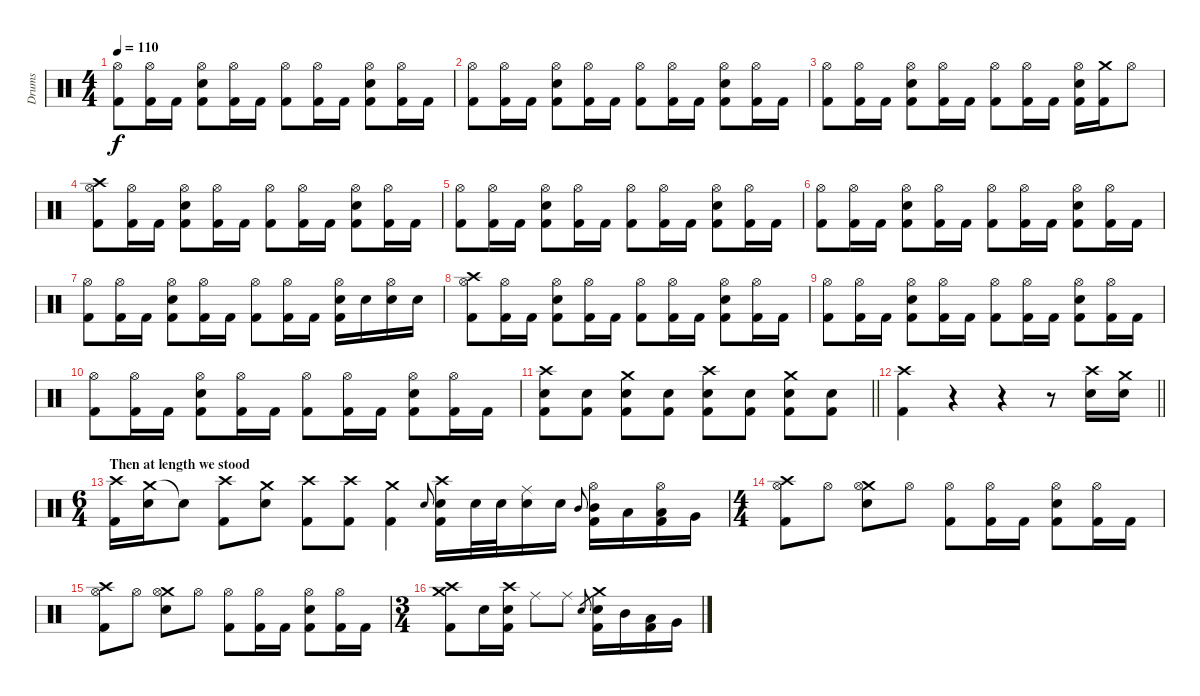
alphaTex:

\track ("Drums" "Drums") {instrument percussion}
\staff {score}
\articulation defaults
\ts (4 4)
\tempo 110
\clef neutral
\ks c
("Hi-Hat (open)" "Kick (hit) 2").8{dy f} ("Hi-Hat (open)" "Kick (hit) 2").16 "Kick (hit) 2".16 ("Hi-Hat (open)" "Snare (hit) 2" "Kick (hit) 2").8 ("Hi-Hat (open)" "Kick (hit) 2").16 "Kick (hit) 2".16 ("Hi-Hat (open)" "Kick (hit) 2").8 ("Hi-Hat (open)" "Kick (hit) 2").16 "Kick (hit) 2".16 ("Hi-Hat (open)" "Snare (hit) 2" "Kick (hit) 2").8 ("Hi-Hat (open)" "Kick (hit) 2").16 "Kick (hit) 2".16 |
("Hi-Hat (open)" "Kick (hit) 2").8 ("Hi-Hat (open)" "Kick (hit) 2").16 "Kick (hit) 2".16 ("Hi-Hat (open)" "Snare (hit) 2" "Kick (hit) 2").8 ("Hi-Hat (open)" "Kick (hit) 2").16 "Kick (hit) 2".16 ("Hi-Hat (open)" "Kick (hit) 2").8 ("Hi-Hat (open)" "Kick (hit) 2").16 "Kick (hit) 2".16 ("Hi-Hat (open)" "Snare (hit) 2" "Kick (hit) 2").8 ("Hi-Hat (open)" "Kick (hit) 2").16 "Kick (hit) 2".16 |
("Hi-Hat (open)" "Kick (hit) 2").8 ("Hi-Hat (open)" "Kick (hit) 2").16 "Kick (hit) 2".16 ("Hi-Hat (open)" "Snare (hit) 2" "Kick (hit) 2").8 ("Hi-Hat (open)" "Kick (hit) 2").16 "Kick (hit) 2".16 ("Hi-Hat (open)" "Kick (hit) 2").8 ("Hi-Hat (open)" "Kick (hit) 2").16 "Kick (hit) 2".16 ("Hi-Hat (open)" "Snare (hit) 2" "Kick (hit) 2").16 ("Crash medium (hit)" "Kick (hit) 2").16 "Hi-Hat (open)".8 |
("Crash high (hit)" "Hi-Hat (open)" "Kick (hit) 2").8 ("Hi-Hat (open)" "Kick (hit) 2").16 "Kick (hit) 2".16 ("Hi-Hat (open)" "Snare (hit) 2" "Kick (hit) 2").8 ("Hi-Hat (open)" "Kick (hit) 2").16 "Kick (hit) 2".16 ("Hi-Hat (open)" "Kick (hit) 2").8 ("Hi-Hat (open)" "Kick (hit) 2").16 "Kick (hit) 2".16 ("Hi-Hat (open)" "Snare (hit) 2" "Kick (hit) 2").8 ("Hi-Hat (open)" "Kick (hit) 2").16 "Kick (hit) 2".16 |
("Hi-Hat (open)" "Kick (hit) 2").8 ("Hi-Hat (open)" "Kick (hit) 2").16 "Kick (hit) 2".16 ("Hi-Hat (open)" "Snare (hit) 2" "Kick (hit) 2").8 ("Hi-Hat (open)" "Kick (hit) 2").16 "Kick (hit) 2".16 ("Hi-Hat (open)" "Kick (hit) 2").8 ("Hi-Hat (open)" "Kick (hit) 2").16 "Kick (hit) 2".16 ("Hi-Hat (open)" "Snare (hit) 2" "Kick (hit) 2").8 ("Hi-Hat (open)" "Kick (hit) 2").16 "Kick (hit) 2".16 |
("Hi-Hat (open)" "Kick (hit) 2").8 ("Hi-Hat (open)" "Kick (hit) 2").16 "Kick (hit) 2".16 ("Hi-Hat (open)" "Snare (hit) 2" "Kick (hit) 2").8 ("Hi-Hat (open)" "Kick (hit) 2").16 "Kick (hit) 2".16 ("Hi-Hat (open)" "Kick (hit) 2").8 ("Hi-Hat (open)" "Kick (hit) 2").16 "Kick (hit) 2".16 ("Hi-Hat (open)" "Snare (hit) 2" "Kick (hit) 2").8 ("Hi-Hat (open)" "Kick (hit) 2").16 "Kick (hit) 2".16 |
("Hi-Hat (open)" "Kick (hit) 2").8 ("Hi-Hat (open)" "Kick (hit) 2").16 "Kick (hit) 2".16 ("Hi-Hat (open)" "Snare (hit) 2" "Kick (hit) 2").8 ("Hi-Hat (open)" "Kick (hit) 2").16 "Kick (hit) 2".16 ("Hi-Hat (open)" "Kick (hit) 2").8 ("Hi-Hat (open)" "Kick (hit) 2").16 "Kick (hit) 2".16 ("Hi-Hat (open)" "Snare (hit) 2" "Kick (hit) 2").16 "Snare (hit) 2".16 ("Hi-Hat (open)" "Snare (hit) 2").16 "Snare (hit) 2".16 |
("Crash high (hit)" "Hi-Hat (open)" "Kick (hit) 2").8 ("Hi-Hat (open)" "Kick (hit) 2").16 "Kick (hit) 2".16 ("Hi-Hat (open)" "Snare (hit) 2" "Kick (hit) 2").8 ("Hi-Hat (open)" "Kick (hit) 2").16 "Kick (hit) 2".16 ("Hi-Hat (open)" "Kick (hit) 2").8 ("Hi-Hat (open)" "Kick (hit) 2").16 "Kick (hit) 2".16 ("Hi-Hat (open)" "Snare (hit) 2" "Kick (hit) 2").8 ("Hi-Hat (open)" "Kick (hit) 2").16 "Kick (hit) 2".16 |
("Hi-Hat (open)" "Kick (hit) 2").8 ("Hi-Hat (open)" "Kick (hit) 2").16 "Kick (hit) 2".16 ("Hi-Hat (open)" "Snare (hit) 2" "Kick (hit) 2").8 ("Hi-Hat (open)" "Kick (hit) 2").16 "Kick (hit) 2".16 ("Hi-Hat (open)" "Kick (hit) 2").8 ("Hi-Hat (open)" "Kick (hit) 2").16 "Kick (hit) 2".16 ("Hi-Hat (open)" "Snare (hit) 2" "Kick (hit) 2").8 ("Hi-Hat (open)" "Kick (hit) 2").16 "Kick (hit) 2".16 |
("Hi-Hat (open)" "Kick (hit) 2").8 ("Hi-Hat (open)" "Kick (hit) 2").16 "Kick (hit) 2".16 ("Hi-Hat (open)" "Snare (hit) 2" "Kick (hit) 2").8 ("Hi-Hat (open)" "Kick (hit) 2").16 "Kick (hit) 2".16 ("Hi-Hat (open)" "Kick (hit) 2").8 ("Hi-Hat (open)" "Kick (hit) 2").16 "Kick (hit) 2".16 ("Hi-Hat (open)" "Snare (hit) 2" "Kick (hit) 2").8 ("Hi-Hat (open)" "Kick (hit) 2").16 "Kick (hit) 2".16 |
\barLineRight lightlight
("Crash high (hit)" "Snare (hit) 2" "Kick (hit) 2").8 ("Snare (hit) 2" "Kick (hit) 2").8 ("Crash medium (hit)" "Snare (hit) 2" "Kick (hit) 2").8 ("Snare (hit) 2" "Kick (hit) 2").8 ("Crash high (hit)" "Snare (hit) 2" "Kick (hit) 2").8 ("Snare (hit) 2" "Kick (hit) 2").8 ("Crash medium (hit)" "Snare (hit) 2" "Kick (hit) 2").8 ("Snare (hit) 2" "Kick (hit) 2").8 |
\barLineRight lightlight
("Crash high (hit)" "Kick (hit) 2").4 r.4 r.4 r.8 ("Crash high (hit)" "Snare (hit) 2").16 ("Crash medium (hit)" "Snare (hit) 2").16 |
\ts (6 4)
\section ("" "Then at length we stood")
("Crash high (hit)" "Kick (hit) 2").16 ("Crash medium (hit)" "Snare (hit) 2").16 "Snare (hit)"{t}.8 ("Crash high (hit)" "Kick (hit) 2").8 ("Crash medium (hit)" "Snare (hit) 2").8 ("Crash high (hit)" "Kick (hit) 2").8 ("Crash high (hit)" "Kick (hit) 2").8 ("Crash medium (hit)" "Kick (hit) 2").4 "Snare (hit) 2".8{gr onbeat} ("Crash high (hit)" "Snare (hit) 2" "Kick (hit) 2").16 "Snare (hit) 2".32 "Snare (hit) 2".32 ("Ride (middle)" "Snare (hit) 2").16 "Snare (hit) 2".16 "Mid Tom (hit)".8{gr onbeat} ("Hi-Hat (open)" "Mid Tom (hit)" "Kick (hit) 2").16 "Low Tom (hit)".16 ("Hi-Hat (open)" "Low Tom (hit)" "Kick (hit) 2").16 "Very Low Tom (hit)".16 |
\ts (4 4)
("Crash high (hit)" "Hi-Hat (open)" "Kick (hit) 2").8 "Hi-Hat (open)".8 ("Crash medium (hit)" "Hi-Hat (open)" "Snare (hit) 2").8 "Hi-Hat (open)".8 ("Hi-Hat (open)" "Kick (hit) 2").8 ("Hi-Hat (open)" "Kick (hit) 2").16 "Kick (hit) 2".16 ("Hi-Hat (open)" "Snare (hit) 2" "Kick (hit) 2").8 ("Hi-Hat (open)" "Kick (hit) 2").16 "Kick (hit) 2".16 |
("Crash high (hit)" "Hi-Hat (open)" "Kick (hit) 2").8 "Hi-Hat (open)".8 ("Crash medium (hit)" "Hi-Hat (open)" "Snare (hit) 2").8 "Hi-Hat (open)".8 ("Hi-Hat (open)" "Kick (hit) 2").8 ("Hi-Hat (open)" "Kick (hit) 2").16 "Kick (hit) 2".16 ("Hi-Hat (open)" "Snare (hit) 2" "Kick (hit) 2").8 ("Hi-Hat (open)" "Kick (hit) 2").16 "Kick (hit) 2".16 |
\ts (3 4)
("Crash medium (hit)" "Crash high (hit)" "Kick (hit) 2").8 "Snare (hit) 2".16 ("Crash high (hit)" "Snare (hit) 2" "Kick (hit) 2").16 "Ride (middle)".8 "Ride (middle)".8 "Snare (hit) 2".8{gr} ("Crash medium (hit)" "Snare (hit) 2" "Kick (hit) 2").16 "Mid Tom (hit)".16 ("Low Tom (hit)" "Kick (hit) 2").16 "Very Low Tom (hit)".16
